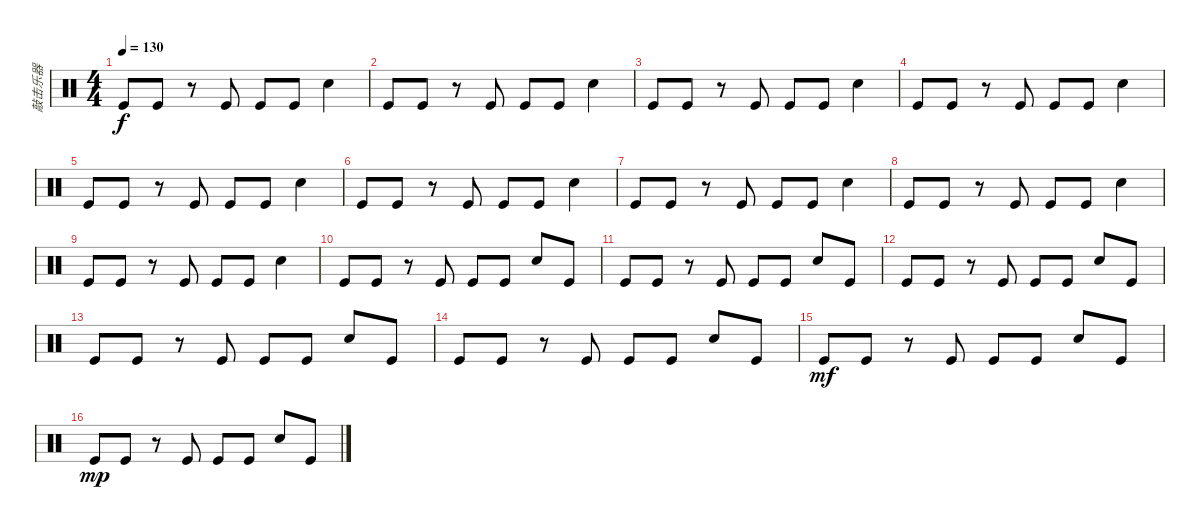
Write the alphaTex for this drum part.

\track ("敲击乐器" "敲击乐器") {instrument percussion}
\staff {score}
\articulation defaults
\ts (4 4)
\tempo 130
\clef neutral
\ks c "Kick (hit)".8{dy f} "Kick (hit)".8
r.8 "Kick (hit)".8 "Kick (hit)".8 "Kick (hit)".8 "Snare (hit) 2".4 |
"Kick (hit)".8 "Kick (hit)".8 r.8 "Kick (hit)".8 "Kick (hit)".8 "Kick (hit)".8 "Snare (hit) 2".4 |
"Kick (hit)".8 "Kick (hit)".8 r.8 "Kick (hit)".8 "Kick (hit)".8 "Kick (hit)".8 "Snare (hit) 2".4 |
"Kick (hit)".8 "Kick (hit)".8 r.8 "Kick (hit)".8 "Kick (hit)".8 "Kick (hit)".8 "Snare (hit) 2".4 |
"Kick (hit)".8 "Kick (hit)".8 r.8 "Kick (hit)".8 "Kick (hit)".8 "Kick (hit)".8 "Snare (hit) 2".4 |
"Kick (hit)".8 "Kick (hit)".8 r.8 "Kick (hit)".8 "Kick (hit)".8 "Kick (hit)".8 "Snare (hit) 2".4 |
"Kick (hit)".8 "Kick (hit)".8 r.8 "Kick (hit)".8 "Kick (hit)".8 "Kick (hit)".8 "Snare (hit) 2".4 |
"Kick (hit)".8 "Kick (hit)".8 r.8 "Kick (hit)".8 "Kick (hit)".8 "Kick (hit)".8 "Snare (hit) 2".4 |
"Kick (hit)".8 "Kick (hit)".8 r.8 "Kick (hit)".8 "Kick (hit)".8 "Kick (hit)".8 "Snare (hit) 2".4 |
"Kick (hit)".8 "Kick (hit)".8 r.8 "Kick (hit)".8 "Kick (hit)".8 "Kick (hit)".8 "Snare (hit) 2".8 "Kick (hit)".8 |
"Kick (hit)".8 "Kick (hit)".8 r.8 "Kick (hit)".8 "Kick (hit)".8 "Kick (hit)".8 "Snare (hit) 2".8 "Kick (hit)".8 |
"Kick (hit)".8 "Kick (hit)".8 r.8 "Kick (hit)".8 "Kick (hit)".8 "Kick (hit)".8 "Snare (hit) 2".8 "Kick (hit)".8 |
"Kick (hit)".8 "Kick (hit)".8 r.8 "Kick (hit)".8 "Kick (hit)".8 "Kick (hit)".8 "Snare (hit) 2".8 "Kick (hit)".8 |
"Kick (hit)".8 "Kick (hit)".8 r.8 "Kick (hit)".8 "Kick (hit)".8 "Kick (hit)".8 "Snare (hit) 2".8 "Kick (hit)".8 |
"Kick (hit)".8{dy mf} "Kick (hit)".8 r.8 "Kick (hit)".8 "Kick (hit)".8 "Kick (hit)".8 "Snare (hit) 2".8 "Kick (hit)".8 |
"Kick (hit)".8{dy mp} "Kick (hit)".8 r.8 "Kick (hit)".8 "Kick (hit)".8 "Kick (hit)".8 "Snare (hit) 2".8 "Kick (hit)".8
